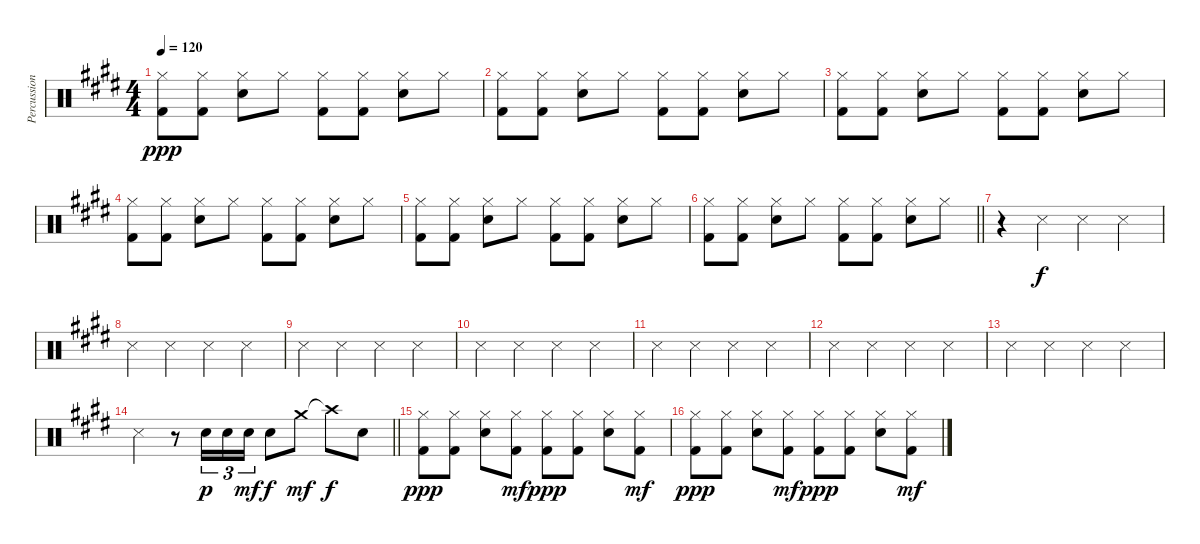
\track ("Percussion" "Percussion") {solo instrument percussion}
\staff {score}
\articulation defaults
\ts (4 4)
\tempo 120
\clef neutral
\ks e
("Hi-Hat (closed)" "Kick (hit) 2").8{dy ppp} ("Hi-Hat (closed)" "Kick (hit) 2").8 ("Hi-Hat (closed)" "Snare (hit) 2").8 "Hi-Hat (closed)".8 ("Hi-Hat (closed)" "Kick (hit) 2").8 ("Hi-Hat (closed)" "Kick (hit) 2").8 ("Hi-Hat (closed)" "Snare (hit) 2").8 "Hi-Hat (closed)".8 |
("Hi-Hat (closed)" "Kick (hit) 2").8 ("Hi-Hat (closed)" "Kick (hit) 2").8 ("Hi-Hat (closed)" "Snare (hit) 2").8 "Hi-Hat (closed)".8 ("Hi-Hat (closed)" "Kick (hit) 2").8 ("Hi-Hat (closed)" "Kick (hit) 2").8 ("Hi-Hat (closed)" "Snare (hit) 2").8 "Hi-Hat (closed)".8 |
("Hi-Hat (closed)" "Kick (hit) 2").8 ("Hi-Hat (closed)" "Kick (hit) 2").8 ("Hi-Hat (closed)" "Snare (hit) 2").8 "Hi-Hat (closed)".8 ("Hi-Hat (closed)" "Kick (hit) 2").8 ("Hi-Hat (closed)" "Kick (hit) 2").8 ("Hi-Hat (closed)" "Snare (hit) 2").8 "Hi-Hat (closed)".8 |
("Hi-Hat (closed)" "Kick (hit) 2").8 ("Hi-Hat (closed)" "Kick (hit) 2").8 ("Hi-Hat (closed)" "Snare (hit) 2").8 "Hi-Hat (closed)".8 ("Hi-Hat (closed)" "Kick (hit) 2").8 ("Hi-Hat (closed)" "Kick (hit) 2").8 ("Hi-Hat (closed)" "Snare (hit) 2").8 "Hi-Hat (closed)".8 |
("Hi-Hat (closed)" "Kick (hit) 2").8 ("Hi-Hat (closed)" "Kick (hit) 2").8 ("Hi-Hat (closed)" "Snare (hit) 2").8 "Hi-Hat (closed)".8 ("Hi-Hat (closed)" "Kick (hit) 2").8 ("Hi-Hat (closed)" "Kick (hit) 2").8 ("Hi-Hat (closed)" "Snare (hit) 2").8 "Hi-Hat (closed)".8 |
\barLineRight lightlight
("Hi-Hat (closed)" "Kick (hit) 2").8 ("Hi-Hat (closed)" "Kick (hit) 2").8 ("Hi-Hat (closed)" "Snare (hit) 2").8 "Hi-Hat (closed)".8 ("Hi-Hat (closed)" "Kick (hit) 2").8 ("Hi-Hat (closed)" "Kick (hit) 2").8 ("Hi-Hat (closed)" "Snare (hit) 2").8 "Hi-Hat (closed)".8 |
r.4 "Snare (side stick) 3".4{dy f} "Snare (side stick) 3".4 "Snare (side stick) 3".4 |
"Snare (side stick) 3".4 "Snare (side stick) 3".4 "Snare (side stick) 3".4 "Snare (side stick) 3".4 |
"Snare (side stick) 3".4 "Snare (side stick) 3".4 "Snare (side stick) 3".4 "Snare (side stick) 3".4 |
"Snare (side stick) 3".4 "Snare (side stick) 3".4 "Snare (side stick) 3".4 "Snare (side stick) 3".4 |
"Snare (side stick) 3".4 "Snare (side stick) 3".4 "Snare (side stick) 3".4 "Snare (side stick) 3".4 |
"Snare (side stick) 3".4 "Snare (side stick) 3".4 "Snare (side stick) 3".4 "Snare (side stick) 3".4 |
"Snare (side stick) 3".4 "Snare (side stick) 3".4 "Snare (side stick) 3".4 "Snare (side stick) 3".4 |
\barLineRight lightlight "Snare (side stick) 3".4
r.8 "Snare (hit) 2".16{tu (3 2) dy p} "Snare (hit) 2".16{tu (3 2)} "Snare (hit) 2".16{tu (3 2) dy mf} "Snare (hit) 2".8{dy f} "Crash medium (hit)".8{dy mf} "Crash high (hit)"{t}.8{dy f} "Snare (hit) 2".8 |
("Hi-Hat (closed)" "Kick (hit) 2").8{dy ppp} ("Hi-Hat (closed)" "Kick (hit) 2").8 ("Hi-Hat (closed)" "Snare (hit) 2").8 ("Hi-Hat (closed)" "Kick (hit) 2").8{dy mf} ("Hi-Hat (closed)" "Kick (hit) 2").8{dy ppp} ("Hi-Hat (closed)" "Kick (hit) 2").8 ("Hi-Hat (closed)" "Snare (hit) 2").8 ("Hi-Hat (closed)" "Kick (hit) 2").8{dy mf} |
("Hi-Hat (closed)" "Kick (hit) 2").8{dy ppp} ("Hi-Hat (closed)" "Kick (hit) 2").8 ("Hi-Hat (closed)" "Snare (hit) 2").8 ("Hi-Hat (closed)" "Kick (hit) 2").8{dy mf} ("Hi-Hat (closed)" "Kick (hit) 2").8{dy ppp} ("Hi-Hat (closed)" "Kick (hit) 2").8 ("Hi-Hat (closed)" "Snare (hit) 2").8 ("Hi-Hat (closed)" "Kick (hit) 2").8{dy mf}
